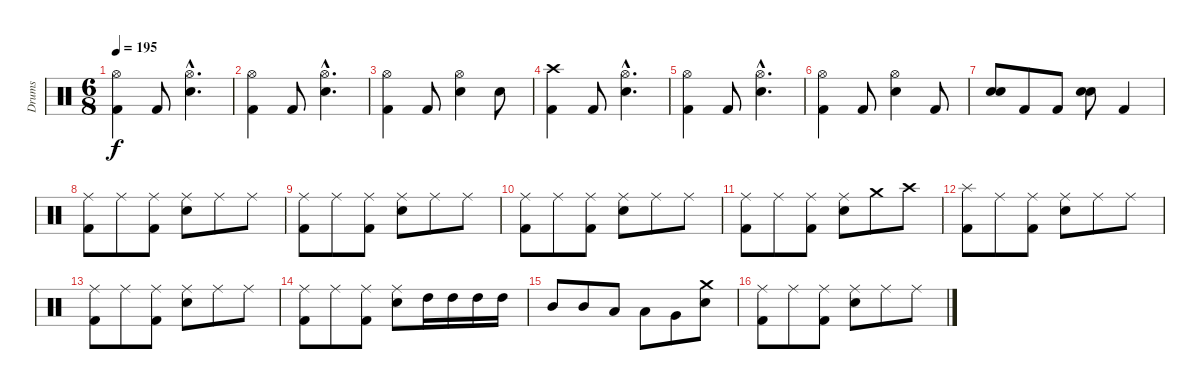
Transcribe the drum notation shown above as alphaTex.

\track ("Drums" "Drums") {instrument percussion}
\staff {score}
\articulation defaults
\ts (6 8)
\tempo 195
\clef neutral
\ks c
("Hi-Hat (open)" "Kick (hit) 2").4{dy f} "Kick (hit) 2".8 ("Hi-Hat (open)"{hac} "Electric Snare (hit)"{hac}).4{d} |
("Hi-Hat (open)" "Kick (hit) 2").4 "Kick (hit) 2".8 ("Hi-Hat (open)"{hac} "Electric Snare (hit)"{hac}).4{d} |
("Hi-Hat (open)" "Kick (hit) 2").4 "Kick (hit) 2".8 ("Hi-Hat (open)" "Electric Snare (hit)").4 "Electric Snare (hit)".8 |
("Crash high (hit)" "Kick (hit) 2").4 "Kick (hit) 2".8 ("Hi-Hat (open)"{hac} "Electric Snare (hit)"{hac}).4{d} |
("Hi-Hat (open)" "Kick (hit) 2").4 "Kick (hit) 2".8 ("Hi-Hat (open)"{hac} "Electric Snare (hit)"{hac}).4{d} |
("Hi-Hat (open)" "Kick (hit) 2").4 "Kick (hit) 2".8 ("Hi-Hat (open)" "Electric Snare (hit)").4 "Kick (hit) 2".8 |
("Electric Snare (hit)" "Electric Snare (hit)").8{bd 240} "Kick (hit) 2".8 "Kick (hit) 2".8 ("Electric Snare (hit)" "Electric Snare (hit)").8{bd 240} "Kick (hit) 2".4 |
("Ride (middle)" "Kick (hit) 2").8 "Ride (middle)".8 ("Ride (middle)" "Kick (hit) 2").8 ("Ride (middle)" "Electric Snare (hit)").8 "Ride (middle)".8 "Ride (middle)".8 |
("Ride (middle)" "Kick (hit) 2").8 "Ride (middle)".8 ("Ride (middle)" "Kick (hit) 2").8 ("Ride (middle)" "Electric Snare (hit)").8 "Ride (middle)".8 "Ride (middle)".8 |
("Ride (middle)" "Kick (hit) 2").8 "Ride (middle)".8 ("Ride (middle)" "Kick (hit) 2").8 ("Ride (middle)" "Electric Snare (hit)").8 "Ride (middle)".8 "Ride (middle)".8 |
("Ride (middle)" "Kick (hit) 2").8 "Ride (middle)".8 ("Ride (middle)" "Kick (hit) 2").8 ("Ride (middle)" "Electric Snare (hit)").8 "Crash medium (hit)".8 "Crash high (hit)".8 |
("Splash (hit)" "Kick (hit) 2").8 "Ride (middle)".8 ("Ride (middle)" "Kick (hit) 2").8 ("Ride (middle)" "Electric Snare (hit)").8 "Ride (middle)".8 "Ride (middle)".8 |
("Ride (middle)" "Kick (hit) 2").8 "Ride (middle)".8 ("Ride (middle)" "Kick (hit) 2").8 ("Ride (middle)" "Electric Snare (hit)").8 "Ride (middle)".8 "Ride (middle)".8 |
("Ride (middle)" "Kick (hit) 2").8 "Ride (middle)".8 ("Ride (middle)" "Kick (hit) 2").8 ("Ride (middle)" "Electric Snare (hit)").8 "High Tom (hit)".16 "High Tom (hit)".16 "High Tom (hit)".16 "High Tom (hit)".16 |
"Mid Tom (hit)".8 "Mid Tom (hit)".8 "Low Tom (hit)".8 "Low Tom (hit)".8 "Very Low Tom (hit)".8 ("Crash medium (hit)" "Electric Snare (hit)").8 |
("Ride (middle)" "Kick (hit) 2").8 "Ride (middle)".8 ("Ride (middle)" "Kick (hit) 2").8 ("Ride (middle)" "Electric Snare (hit)").8 "Ride (middle)".8 "Ride (middle)".8
